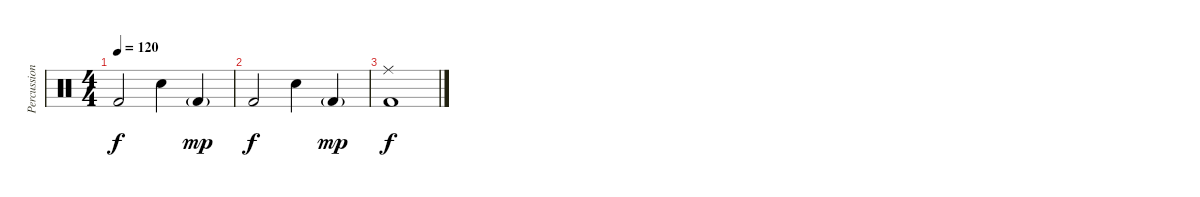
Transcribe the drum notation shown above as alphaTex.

\track ("Percussion" "Percussion") {instrument percussion}
\staff {score}
\articulation defaults
\ts (4 4)
\tempo 120
\clef neutral
\ks c "Kick (hit) 2".2{dy f} "Snare (hit) 2".4 "Kick (hit) 2"{g}.4{dy mp}
|
"Kick (hit) 2".2{dy f} "Snare (hit) 2".4 "Kick (hit) 2"{g}.4{dy mp} |
("Ride (middle)" "Kick (hit) 2").1{dy f}
